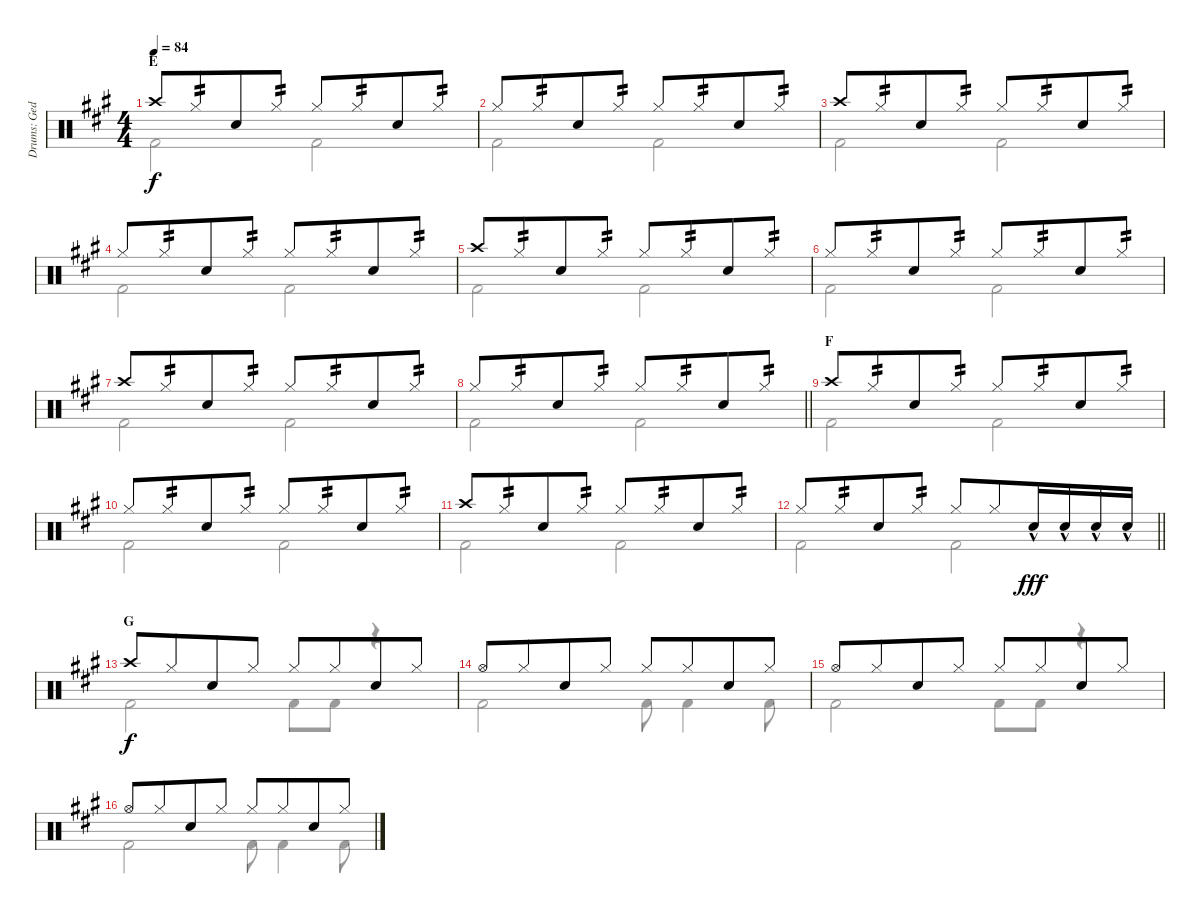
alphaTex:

\track ("Drums: Ged Lynch" "Drums: Ged") {instrument percussion}
\staff {score}
\articulation defaults
\voice
\ts (4 4)
\section ("" "E")
\tempo 84
\clef neutral
\ks a "Crash high (hit)".8{dy f} "Hi-Hat (closed)".8{tp 2 beam merge} "Electric Snare (hit)".8 "Hi-Hat (closed)".8{tp 2} "Hi-Hat (closed)".8 "Hi-Hat (closed)".8{tp 2 beam merge} "Electric Snare (hit)".8 "Hi-Hat (closed)".8{tp 2}
|
"Hi-Hat (closed)".8 "Hi-Hat (closed)".8{tp 2 beam merge} "Electric Snare (hit)".8 "Hi-Hat (closed)".8{tp 2} "Hi-Hat (closed)".8 "Hi-Hat (closed)".8{tp 2 beam merge} "Electric Snare (hit)".8 "Hi-Hat (closed)".8{tp 2} |
"Crash high (hit)".8 "Hi-Hat (closed)".8{tp 2 beam merge} "Electric Snare (hit)".8 "Hi-Hat (closed)".8{tp 2} "Hi-Hat (closed)".8 "Hi-Hat (closed)".8{tp 2 beam merge} "Electric Snare (hit)".8 "Hi-Hat (closed)".8{tp 2} |
"Hi-Hat (closed)".8 "Hi-Hat (closed)".8{tp 2 beam merge} "Electric Snare (hit)".8 "Hi-Hat (closed)".8{tp 2} "Hi-Hat (closed)".8 "Hi-Hat (closed)".8{tp 2 beam merge} "Electric Snare (hit)".8 "Hi-Hat (closed)".8{tp 2} |
"Crash high (hit)".8 "Hi-Hat (closed)".8{tp 2 beam merge} "Electric Snare (hit)".8 "Hi-Hat (closed)".8{tp 2} "Hi-Hat (closed)".8 "Hi-Hat (closed)".8{tp 2 beam merge} "Electric Snare (hit)".8 "Hi-Hat (closed)".8{tp 2} |
"Hi-Hat (closed)".8 "Hi-Hat (closed)".8{tp 2 beam merge} "Electric Snare (hit)".8 "Hi-Hat (closed)".8{tp 2} "Hi-Hat (closed)".8 "Hi-Hat (closed)".8{tp 2 beam merge} "Electric Snare (hit)".8 "Hi-Hat (closed)".8{tp 2} |
"Crash high (hit)".8 "Hi-Hat (closed)".8{tp 2 beam merge} "Electric Snare (hit)".8 "Hi-Hat (closed)".8{tp 2} "Hi-Hat (closed)".8 "Hi-Hat (closed)".8{tp 2 beam merge} "Electric Snare (hit)".8 "Hi-Hat (closed)".8{tp 2} |
\barLineRight lightlight "Hi-Hat (closed)".8 "Hi-Hat (closed)".8{tp 2 beam merge} "Electric Snare (hit)".8 "Hi-Hat (closed)".8{tp 2} "Hi-Hat (closed)".8 "Hi-Hat (closed)".8{tp 2 beam merge} "Electric Snare (hit)".8 "Hi-Hat (closed)".8{tp 2}
|
\section ("" "F")
"Crash high (hit)".8 "Hi-Hat (closed)".8{tp 2 beam merge} "Electric Snare (hit)".8 "Hi-Hat (closed)".8{tp 2} "Hi-Hat (closed)".8 "Hi-Hat (closed)".8{tp 2 beam merge} "Electric Snare (hit)".8 "Hi-Hat (closed)".8{tp 2} |
"Hi-Hat (closed)".8 "Hi-Hat (closed)".8{tp 2 beam merge} "Electric Snare (hit)".8 "Hi-Hat (closed)".8{tp 2} "Hi-Hat (closed)".8 "Hi-Hat (closed)".8{tp 2 beam merge} "Electric Snare (hit)".8 "Hi-Hat (closed)".8{tp 2} |
"Crash high (hit)".8 "Hi-Hat (closed)".8{tp 2 beam merge} "Electric Snare (hit)".8 "Hi-Hat (closed)".8{tp 2} "Hi-Hat (closed)".8 "Hi-Hat (closed)".8{tp 2 beam merge} "Electric Snare (hit)".8 "Hi-Hat (closed)".8{tp 2} |
\barLineRight lightlight "Hi-Hat (closed)".8 "Hi-Hat (closed)".8{tp 2 beam merge} "Electric Snare (hit)".8 "Hi-Hat (closed)".8{tp 2} "Hi-Hat (closed)".8 "Hi-Hat (closed)".8{beam merge} "Snare (hit) 2"{hac}.16{dy fff} "Snare (hit) 2"{hac}.16 "Snare (hit) 2"{hac}.16 "Snare (hit) 2"{hac}.16
|
\section ("" "G")
"Crash high (hit)".8{dy f} "Hi-Hat (closed)".8{beam merge} "Electric Snare (hit)".8 "Hi-Hat (closed)".8 "Hi-Hat (closed)".8 "Hi-Hat (closed)".8{beam merge} "Electric Snare (hit)".8 "Hi-Hat (closed)".8 |
"Hi-Hat (open)".8 "Hi-Hat (closed)".8{beam merge} "Electric Snare (hit)".8 "Hi-Hat (closed)".8 "Hi-Hat (closed)".8 "Hi-Hat (closed)".8{beam merge} "Electric Snare (hit)".8 "Hi-Hat (closed)".8 |
"Hi-Hat (open)".8 "Hi-Hat (closed)".8{beam merge} "Electric Snare (hit)".8 "Hi-Hat (closed)".8 "Hi-Hat (closed)".8 "Hi-Hat (closed)".8{beam merge} "Electric Snare (hit)".8 "Hi-Hat (closed)".8 |
"Hi-Hat (open)".8 "Hi-Hat (closed)".8{beam merge} "Electric Snare (hit)".8 "Hi-Hat (closed)".8 "Hi-Hat (closed)".8 "Hi-Hat (closed)".8{beam merge} "Electric Snare (hit)".8 "Hi-Hat (closed)".8
\voice
\clef neutral
\ottava regular
\simile none
\ks a "Kick (hit) 2".2{dy f} "Kick (hit) 2".2
|
"Kick (hit) 2".2 "Kick (hit) 2".2 |
"Kick (hit) 2".2 "Kick (hit) 2".2 |
"Kick (hit) 2".2 "Kick (hit) 2".2 |
"Kick (hit) 2".2 "Kick (hit) 2".2 |
"Kick (hit) 2".2 "Kick (hit) 2".2 |
"Kick (hit) 2".2 "Kick (hit) 2".2 |
\barLineRight lightlight "Kick (hit) 2".2 "Kick (hit) 2".2
|
"Kick (hit) 2".2 "Kick (hit) 2".2 |
"Kick (hit) 2".2 "Kick (hit) 2".2 |
"Kick (hit) 2".2 "Kick (hit) 2".2 |
\barLineRight lightlight "Kick (hit) 2".2 "Kick (hit) 2".2
|
"Kick (hit) 2".2 "Kick (hit) 2".8 "Kick (hit) 2".8 r.4 |
"Kick (hit) 2".2 "Kick (hit) 2".8 "Kick (hit) 2".4 "Kick (hit) 2".8 |
"Kick (hit) 2".2 "Kick (hit) 2".8 "Kick (hit) 2".8 r.4 |
"Kick (hit) 2".2 "Kick (hit) 2".8 "Kick (hit) 2".4 "Kick (hit) 2".8
